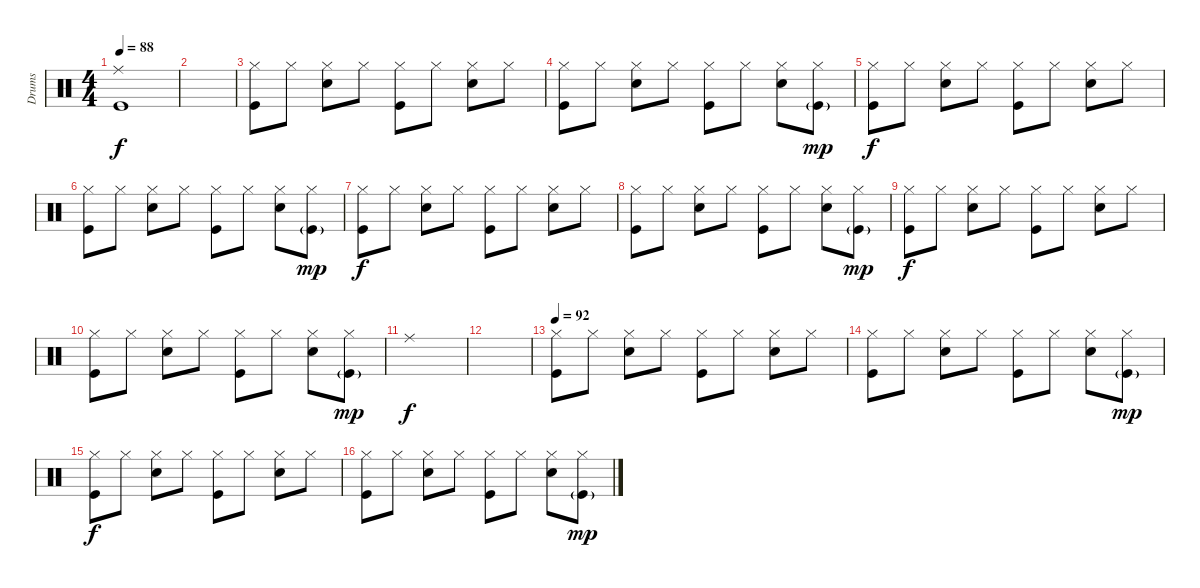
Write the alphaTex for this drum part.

\track ("Drums" "Drums") {instrument percussion}
\staff {score}
\articulation defaults
\ts (4 4)
\tempo 88
\clef neutral
\ks c
("Ride (middle)" "Kick (hit)").1{dy f} |
|
("Hi-Hat (closed)" "Kick (hit)").8 "Hi-Hat (closed)".8 ("Hi-Hat (closed)" "Snare (hit) 2").8 "Hi-Hat (closed)".8 ("Hi-Hat (closed)" "Kick (hit)").8 "Hi-Hat (closed)".8 ("Hi-Hat (closed)" "Snare (hit) 2").8 "Hi-Hat (closed)".8 |
("Hi-Hat (closed)" "Kick (hit)").8 "Hi-Hat (closed)".8 ("Hi-Hat (closed)" "Snare (hit) 2").8 "Hi-Hat (closed)".8 ("Hi-Hat (closed)" "Kick (hit)").8 "Hi-Hat (closed)".8 ("Hi-Hat (closed)" "Snare (hit) 2").8 ("Hi-Hat (closed)" "Kick (hit)"{g}).8{dy mp} |
("Hi-Hat (closed)" "Kick (hit)").8{dy f} "Hi-Hat (closed)".8 ("Hi-Hat (closed)" "Snare (hit) 2").8 "Hi-Hat (closed)".8 ("Hi-Hat (closed)" "Kick (hit)").8 "Hi-Hat (closed)".8 ("Hi-Hat (closed)" "Snare (hit) 2").8 "Hi-Hat (closed)".8 |
("Hi-Hat (closed)" "Kick (hit)").8 "Hi-Hat (closed)".8 ("Hi-Hat (closed)" "Snare (hit) 2").8 "Hi-Hat (closed)".8 ("Hi-Hat (closed)" "Kick (hit)").8 "Hi-Hat (closed)".8 ("Hi-Hat (closed)" "Snare (hit) 2").8 ("Hi-Hat (closed)" "Kick (hit)"{g}).8{dy mp} |
("Hi-Hat (closed)" "Kick (hit)").8{dy f} "Hi-Hat (closed)".8 ("Hi-Hat (closed)" "Snare (hit) 2").8 "Hi-Hat (closed)".8 ("Hi-Hat (closed)" "Kick (hit)").8 "Hi-Hat (closed)".8 ("Hi-Hat (closed)" "Snare (hit) 2").8 "Hi-Hat (closed)".8 |
("Hi-Hat (closed)" "Kick (hit)").8 "Hi-Hat (closed)".8 ("Hi-Hat (closed)" "Snare (hit) 2").8 "Hi-Hat (closed)".8 ("Hi-Hat (closed)" "Kick (hit)").8 "Hi-Hat (closed)".8 ("Hi-Hat (closed)" "Snare (hit) 2").8 ("Hi-Hat (closed)" "Kick (hit)"{g}).8{dy mp} |
("Hi-Hat (closed)" "Kick (hit)").8{dy f} "Hi-Hat (closed)".8 ("Hi-Hat (closed)" "Snare (hit) 2").8 "Hi-Hat (closed)".8 ("Hi-Hat (closed)" "Kick (hit)").8 "Hi-Hat (closed)".8 ("Hi-Hat (closed)" "Snare (hit) 2").8 "Hi-Hat (closed)".8 |
("Hi-Hat (closed)" "Kick (hit)").8 "Hi-Hat (closed)".8 ("Hi-Hat (closed)" "Snare (hit) 2").8 "Hi-Hat (closed)".8 ("Hi-Hat (closed)" "Kick (hit)").8 "Hi-Hat (closed)".8 ("Hi-Hat (closed)" "Snare (hit) 2").8 ("Hi-Hat (closed)" "Kick (hit)"{g}).8{dy mp} |
"Ride (middle)".1{dy f} |
|
\tempo 92
("Hi-Hat (closed)" "Kick (hit)").8 "Hi-Hat (closed)".8 ("Hi-Hat (closed)" "Snare (hit) 2").8 "Hi-Hat (closed)".8 ("Hi-Hat (closed)" "Kick (hit)").8 "Hi-Hat (closed)".8 ("Hi-Hat (closed)" "Snare (hit) 2").8 "Hi-Hat (closed)".8 |
("Hi-Hat (closed)" "Kick (hit)").8 "Hi-Hat (closed)".8 ("Hi-Hat (closed)" "Snare (hit) 2").8 "Hi-Hat (closed)".8 ("Hi-Hat (closed)" "Kick (hit)").8 "Hi-Hat (closed)".8 ("Hi-Hat (closed)" "Snare (hit) 2").8 ("Hi-Hat (closed)" "Kick (hit)"{g}).8{dy mp} |
("Hi-Hat (closed)" "Kick (hit)").8{dy f} "Hi-Hat (closed)".8 ("Hi-Hat (closed)" "Snare (hit) 2").8 "Hi-Hat (closed)".8 ("Hi-Hat (closed)" "Kick (hit)").8 "Hi-Hat (closed)".8 ("Hi-Hat (closed)" "Snare (hit) 2").8 "Hi-Hat (closed)".8 |
("Hi-Hat (closed)" "Kick (hit)").8 "Hi-Hat (closed)".8 ("Hi-Hat (closed)" "Snare (hit) 2").8 "Hi-Hat (closed)".8 ("Hi-Hat (closed)" "Kick (hit)").8 "Hi-Hat (closed)".8 ("Hi-Hat (closed)" "Snare (hit) 2").8 ("Hi-Hat (closed)" "Kick (hit)"{g}).8{dy mp}
